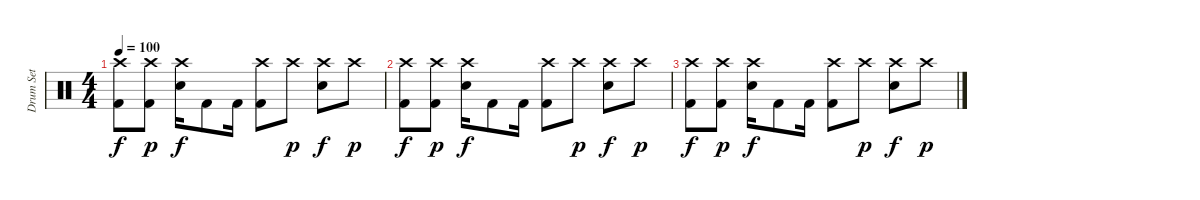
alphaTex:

\track ("Drum Set" "Drum Set") {instrument percussion}
\staff {score}
\articulation defaults
\ts (4 4)
\tempo 100
\clef neutral
\ks c
("Crash high (hit)" "Kick (hit) 2").8{dy f} ("Crash high (hit)" "Kick (hit) 2").8{dy p} ("Crash high (hit)" "Snare (hit) 2").16{dy f} "Kick (hit) 2".8 "Kick (hit) 2".16 ("Crash high (hit)" "Kick (hit) 2").8 "Crash high (hit)".8{dy p} ("Crash high (hit)" "Snare (hit) 2").8{dy f} "Crash high (hit)".8{dy p} |
("Crash high (hit)" "Kick (hit) 2").8{dy f} ("Crash high (hit)" "Kick (hit) 2").8{dy p} ("Crash high (hit)" "Snare (hit) 2").16{dy f} "Kick (hit) 2".8 "Kick (hit) 2".16 ("Crash high (hit)" "Kick (hit) 2").8 "Crash high (hit)".8{dy p} ("Crash high (hit)" "Snare (hit) 2").8{dy f} "Crash high (hit)".8{dy p} |
("Crash high (hit)" "Kick (hit) 2").8{dy f} ("Crash high (hit)" "Kick (hit) 2").8{dy p} ("Crash high (hit)" "Snare (hit) 2").16{dy f} "Kick (hit) 2".8 "Kick (hit) 2".16 ("Crash high (hit)" "Kick (hit) 2").8 "Crash high (hit)".8{dy p} ("Crash high (hit)" "Snare (hit) 2").8{dy f} "Crash high (hit)".8{dy p}
